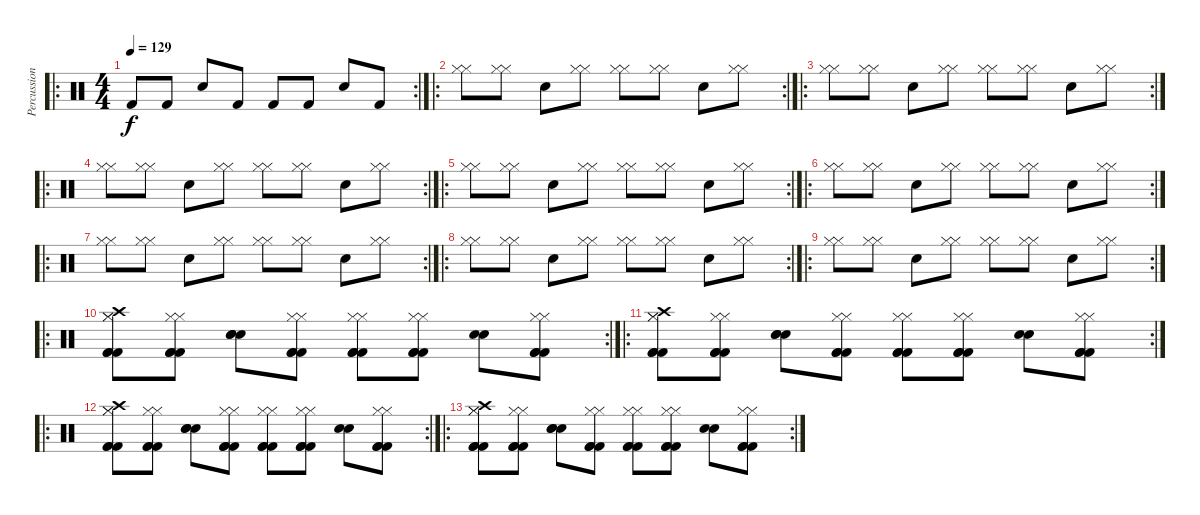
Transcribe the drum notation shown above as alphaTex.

\track ("Percussion" "Percussion") {instrument percussion}
\staff {score}
\articulation defaults
\ro
\rc 2
\ts (4 4)
\tempo 129
\clef neutral
\ks c "Kick (hit) 2".8{dy f} "Kick (hit) 2".8 "Snare (hit) 2".8 "Kick (hit) 2".8 "Kick (hit) 2".8 "Kick (hit) 2".8 "Snare (hit) 2".8 "Kick (hit) 2".8
|
\ro
\rc 2
("Hi-Hat (closed)" "Hi-Hat (closed)").8 ("Hi-Hat (closed)" "Hi-Hat (closed)").8 "Snare (hit) 2".8 ("Hi-Hat (closed)" "Hi-Hat (closed)").8 ("Hi-Hat (closed)" "Hi-Hat (closed)").8 ("Hi-Hat (closed)" "Hi-Hat (closed)").8 "Snare (hit) 2".8 ("Hi-Hat (closed)" "Hi-Hat (closed)").8 |
\ro
\rc 2
("Hi-Hat (closed)" "Hi-Hat (closed)").8 ("Hi-Hat (closed)" "Hi-Hat (closed)").8 "Snare (hit) 2".8 ("Hi-Hat (closed)" "Hi-Hat (closed)").8 ("Hi-Hat (closed)" "Hi-Hat (closed)").8 ("Hi-Hat (closed)" "Hi-Hat (closed)").8 "Snare (hit) 2".8 ("Hi-Hat (closed)" "Hi-Hat (closed)").8 |
\ro
\rc 2
("Hi-Hat (closed)" "Hi-Hat (closed)").8 ("Hi-Hat (closed)" "Hi-Hat (closed)").8 "Snare (hit) 2".8 ("Hi-Hat (closed)" "Hi-Hat (closed)").8 ("Hi-Hat (closed)" "Hi-Hat (closed)").8 ("Hi-Hat (closed)" "Hi-Hat (closed)").8 "Snare (hit) 2".8 ("Hi-Hat (closed)" "Hi-Hat (closed)").8 |
\ro
\rc 2
("Hi-Hat (closed)" "Hi-Hat (closed)").8 ("Hi-Hat (closed)" "Hi-Hat (closed)").8 "Snare (hit) 2".8 ("Hi-Hat (closed)" "Hi-Hat (closed)").8 ("Hi-Hat (closed)" "Hi-Hat (closed)").8 ("Hi-Hat (closed)" "Hi-Hat (closed)").8 "Snare (hit) 2".8 ("Hi-Hat (closed)" "Hi-Hat (closed)").8 |
\ro
\rc 2
("Hi-Hat (closed)" "Hi-Hat (closed)").8 ("Hi-Hat (closed)" "Hi-Hat (closed)").8 "Snare (hit) 2".8 ("Hi-Hat (closed)" "Hi-Hat (closed)").8 ("Hi-Hat (closed)" "Hi-Hat (closed)").8 ("Hi-Hat (closed)" "Hi-Hat (closed)").8 "Snare (hit) 2".8 ("Hi-Hat (closed)" "Hi-Hat (closed)").8 |
\ro
\rc 2
("Hi-Hat (closed)" "Hi-Hat (closed)").8 ("Hi-Hat (closed)" "Hi-Hat (closed)").8 "Snare (hit) 2".8 ("Hi-Hat (closed)" "Hi-Hat (closed)").8 ("Hi-Hat (closed)" "Hi-Hat (closed)").8 ("Hi-Hat (closed)" "Hi-Hat (closed)").8 "Snare (hit) 2".8 ("Hi-Hat (closed)" "Hi-Hat (closed)").8 |
\ro
\rc 2
("Hi-Hat (closed)" "Hi-Hat (closed)").8 ("Hi-Hat (closed)" "Hi-Hat (closed)").8 "Snare (hit) 2".8 ("Hi-Hat (closed)" "Hi-Hat (closed)").8 ("Hi-Hat (closed)" "Hi-Hat (closed)").8 ("Hi-Hat (closed)" "Hi-Hat (closed)").8 "Snare (hit) 2".8 ("Hi-Hat (closed)" "Hi-Hat (closed)").8 |
\ro
\rc 2
("Hi-Hat (closed)" "Hi-Hat (closed)").8 ("Hi-Hat (closed)" "Hi-Hat (closed)").8 "Snare (hit) 2".8 ("Hi-Hat (closed)" "Hi-Hat (closed)").8 ("Hi-Hat (closed)" "Hi-Hat (closed)").8 ("Hi-Hat (closed)" "Hi-Hat (closed)").8 "Snare (hit) 2".8 ("Hi-Hat (closed)" "Hi-Hat (closed)").8 |
\ro
\rc 2
("Crash high (hit)" "Kick (hit) 2" "Kick (hit) 2" "Kick (hit) 2" "Hi-Hat (closed)" "Hi-Hat (closed)").8{volume 16} ("Kick (hit) 2" "Kick (hit) 2" "Kick (hit) 2" "Hi-Hat (closed)" "Hi-Hat (closed)").8 ("Snare (hit) 2" "Snare (hit) 2" "Snare (hit) 2").8 ("Kick (hit) 2" "Kick (hit) 2" "Kick (hit) 2" "Hi-Hat (closed)" "Hi-Hat (closed)").8 ("Kick (hit) 2" "Kick (hit) 2" "Kick (hit) 2" "Hi-Hat (closed)" "Hi-Hat (closed)").8 ("Kick (hit) 2" "Kick (hit) 2" "Kick (hit) 2" "Hi-Hat (closed)" "Hi-Hat (closed)").8 ("Snare (hit) 2" "Snare (hit) 2").8 ("Kick (hit) 2" "Kick (hit) 2" "Kick (hit) 2" "Hi-Hat (closed)" "Hi-Hat (closed)").8 |
\ro
\rc 2
("Crash high (hit)" "Kick (hit) 2" "Kick (hit) 2" "Kick (hit) 2" "Hi-Hat (closed)" "Hi-Hat (closed)").8 ("Kick (hit) 2" "Kick (hit) 2" "Kick (hit) 2" "Hi-Hat (closed)" "Hi-Hat (closed)").8 ("Snare (hit) 2" "Snare (hit) 2" "Snare (hit) 2").8 ("Kick (hit) 2" "Kick (hit) 2" "Kick (hit) 2" "Hi-Hat (closed)" "Hi-Hat (closed)").8 ("Kick (hit) 2" "Kick (hit) 2" "Kick (hit) 2" "Hi-Hat (closed)" "Hi-Hat (closed)").8 ("Kick (hit) 2" "Kick (hit) 2" "Kick (hit) 2" "Hi-Hat (closed)" "Hi-Hat (closed)").8 ("Snare (hit) 2" "Snare (hit) 2").8 ("Kick (hit) 2" "Kick (hit) 2" "Kick (hit) 2" "Hi-Hat (closed)" "Hi-Hat (closed)").8 |
\ro
\rc 2
("Crash high (hit)" "Kick (hit) 2" "Kick (hit) 2" "Kick (hit) 2" "Hi-Hat (closed)" "Hi-Hat (closed)").8 ("Kick (hit) 2" "Kick (hit) 2" "Kick (hit) 2" "Hi-Hat (closed)" "Hi-Hat (closed)").8 ("Snare (hit) 2" "Snare (hit) 2" "Snare (hit) 2").8 ("Kick (hit) 2" "Kick (hit) 2" "Kick (hit) 2" "Hi-Hat (closed)" "Hi-Hat (closed)").8 ("Kick (hit) 2" "Kick (hit) 2" "Kick (hit) 2" "Hi-Hat (closed)" "Hi-Hat (closed)").8 ("Kick (hit) 2" "Kick (hit) 2" "Kick (hit) 2" "Hi-Hat (closed)" "Hi-Hat (closed)").8 ("Snare (hit) 2" "Snare (hit) 2").8 ("Kick (hit) 2" "Kick (hit) 2" "Kick (hit) 2" "Hi-Hat (closed)" "Hi-Hat (closed)").8 |
\ro
\rc 2
("Crash high (hit)" "Kick (hit) 2" "Kick (hit) 2" "Kick (hit) 2" "Hi-Hat (closed)" "Hi-Hat (closed)").8 ("Kick (hit) 2" "Kick (hit) 2" "Kick (hit) 2" "Hi-Hat (closed)" "Hi-Hat (closed)").8 ("Snare (hit) 2" "Snare (hit) 2" "Snare (hit) 2").8 ("Kick (hit) 2" "Kick (hit) 2" "Kick (hit) 2" "Hi-Hat (closed)" "Hi-Hat (closed)").8 ("Kick (hit) 2" "Kick (hit) 2" "Kick (hit) 2" "Hi-Hat (closed)" "Hi-Hat (closed)").8 ("Kick (hit) 2" "Kick (hit) 2" "Kick (hit) 2" "Hi-Hat (closed)" "Hi-Hat (closed)").8 ("Snare (hit) 2" "Snare (hit) 2").8 ("Kick (hit) 2" "Kick (hit) 2" "Kick (hit) 2" "Hi-Hat (closed)" "Hi-Hat (closed)").8
